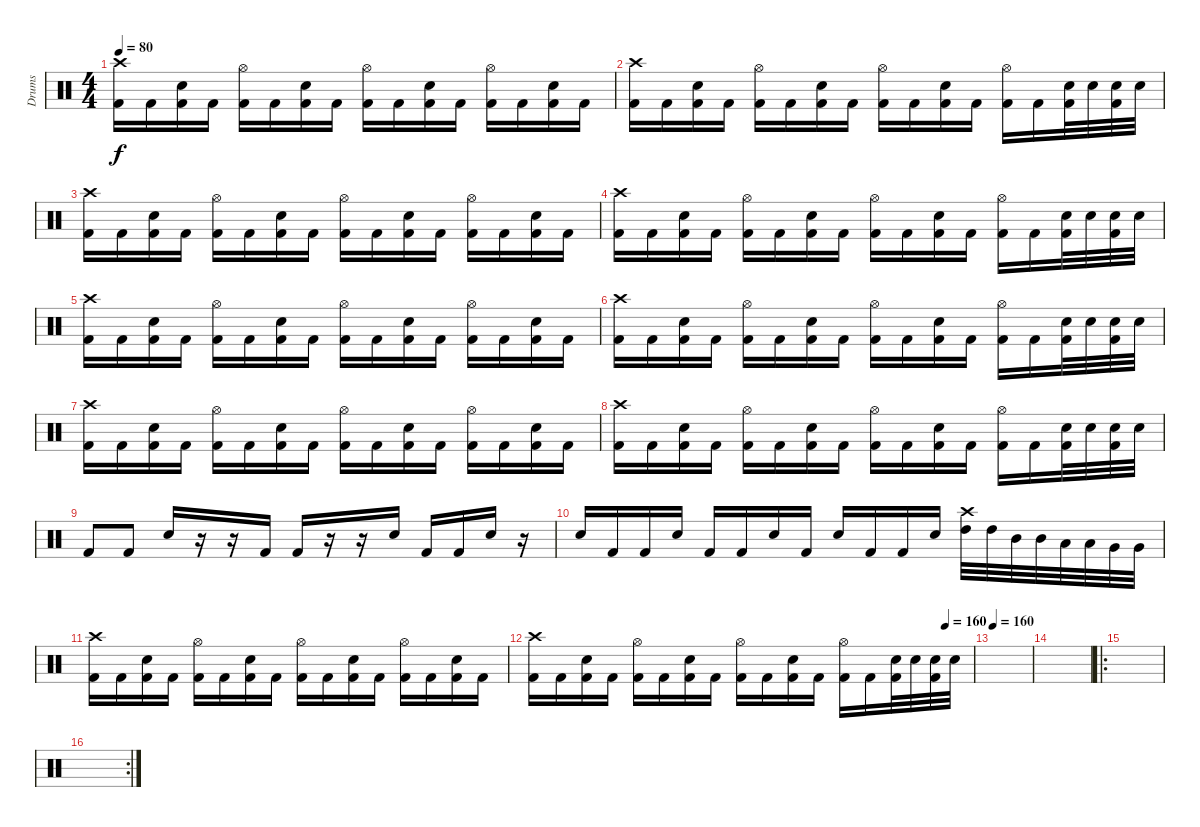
\track ("Drums" "Drums") {instrument percussion}
\staff {score}
\articulation defaults
\ts (4 4)
\tempo 80
\clef neutral
\ks c
("Crash high (hit)" "Kick (hit) 2").16{dy f} "Kick (hit) 2".16 ("Electric Snare (hit)" "Kick (hit) 2").16 "Kick (hit) 2".16 ("Hi-Hat (open)" "Kick (hit) 2").16 "Kick (hit) 2".16 ("Electric Snare (hit)" "Kick (hit) 2").16 "Kick (hit) 2".16 ("Hi-Hat (open)" "Kick (hit) 2").16 "Kick (hit) 2".16 ("Electric Snare (hit)" "Kick (hit) 2").16 "Kick (hit) 2".16 ("Hi-Hat (open)" "Kick (hit) 2").16 "Kick (hit) 2".16 ("Electric Snare (hit)" "Kick (hit) 2").16 "Kick (hit) 2".16 |
("Crash high (hit)" "Kick (hit) 2").16 "Kick (hit) 2".16 ("Electric Snare (hit)" "Kick (hit) 2").16 "Kick (hit) 2".16 ("Hi-Hat (open)" "Kick (hit) 2").16 "Kick (hit) 2".16 ("Electric Snare (hit)" "Kick (hit) 2").16 "Kick (hit) 2".16 ("Hi-Hat (open)" "Kick (hit) 2").16 "Kick (hit) 2".16 ("Electric Snare (hit)" "Kick (hit) 2").16 "Kick (hit) 2".16 ("Hi-Hat (open)" "Kick (hit) 2").16 "Kick (hit) 2".16 ("Electric Snare (hit)" "Kick (hit) 2").32 "Electric Snare (hit)".32 ("Electric Snare (hit)" "Kick (hit) 2").32 "Electric Snare (hit)".32 |
("Crash high (hit)" "Kick (hit) 2").16 "Kick (hit) 2".16 ("Electric Snare (hit)" "Kick (hit) 2").16 "Kick (hit) 2".16 ("Hi-Hat (open)" "Kick (hit) 2").16 "Kick (hit) 2".16 ("Electric Snare (hit)" "Kick (hit) 2").16 "Kick (hit) 2".16 ("Hi-Hat (open)" "Kick (hit) 2").16 "Kick (hit) 2".16 ("Electric Snare (hit)" "Kick (hit) 2").16 "Kick (hit) 2".16 ("Hi-Hat (open)" "Kick (hit) 2").16 "Kick (hit) 2".16 ("Electric Snare (hit)" "Kick (hit) 2").16 "Kick (hit) 2".16 |
("Crash high (hit)" "Kick (hit) 2").16 "Kick (hit) 2".16 ("Electric Snare (hit)" "Kick (hit) 2").16 "Kick (hit) 2".16 ("Hi-Hat (open)" "Kick (hit) 2").16 "Kick (hit) 2".16 ("Electric Snare (hit)" "Kick (hit) 2").16 "Kick (hit) 2".16 ("Hi-Hat (open)" "Kick (hit) 2").16 "Kick (hit) 2".16 ("Electric Snare (hit)" "Kick (hit) 2").16 "Kick (hit) 2".16 ("Hi-Hat (open)" "Kick (hit) 2").16 "Kick (hit) 2".16 ("Electric Snare (hit)" "Kick (hit) 2").32 "Electric Snare (hit)".32 ("Electric Snare (hit)" "Kick (hit) 2").32 "Electric Snare (hit)".32 |
("Crash high (hit)" "Kick (hit) 2").16 "Kick (hit) 2".16 ("Electric Snare (hit)" "Kick (hit) 2").16 "Kick (hit) 2".16 ("Hi-Hat (open)" "Kick (hit) 2").16 "Kick (hit) 2".16 ("Electric Snare (hit)" "Kick (hit) 2").16 "Kick (hit) 2".16 ("Hi-Hat (open)" "Kick (hit) 2").16 "Kick (hit) 2".16 ("Electric Snare (hit)" "Kick (hit) 2").16 "Kick (hit) 2".16 ("Hi-Hat (open)" "Kick (hit) 2").16 "Kick (hit) 2".16 ("Electric Snare (hit)" "Kick (hit) 2").16 "Kick (hit) 2".16 |
("Crash high (hit)" "Kick (hit) 2").16 "Kick (hit) 2".16 ("Electric Snare (hit)" "Kick (hit) 2").16 "Kick (hit) 2".16 ("Hi-Hat (open)" "Kick (hit) 2").16 "Kick (hit) 2".16 ("Electric Snare (hit)" "Kick (hit) 2").16 "Kick (hit) 2".16 ("Hi-Hat (open)" "Kick (hit) 2").16 "Kick (hit) 2".16 ("Electric Snare (hit)" "Kick (hit) 2").16 "Kick (hit) 2".16 ("Hi-Hat (open)" "Kick (hit) 2").16 "Kick (hit) 2".16 ("Electric Snare (hit)" "Kick (hit) 2").32 "Electric Snare (hit)".32 ("Electric Snare (hit)" "Kick (hit) 2").32 "Electric Snare (hit)".32 |
("Crash high (hit)" "Kick (hit) 2").16 "Kick (hit) 2".16 ("Electric Snare (hit)" "Kick (hit) 2").16 "Kick (hit) 2".16 ("Hi-Hat (open)" "Kick (hit) 2").16 "Kick (hit) 2".16 ("Electric Snare (hit)" "Kick (hit) 2").16 "Kick (hit) 2".16 ("Hi-Hat (open)" "Kick (hit) 2").16 "Kick (hit) 2".16 ("Electric Snare (hit)" "Kick (hit) 2").16 "Kick (hit) 2".16 ("Hi-Hat (open)" "Kick (hit) 2").16 "Kick (hit) 2".16 ("Electric Snare (hit)" "Kick (hit) 2").16 "Kick (hit) 2".16 |
("Crash high (hit)" "Kick (hit) 2").16 "Kick (hit) 2".16 ("Electric Snare (hit)" "Kick (hit) 2").16 "Kick (hit) 2".16 ("Hi-Hat (open)" "Kick (hit) 2").16 "Kick (hit) 2".16 ("Electric Snare (hit)" "Kick (hit) 2").16 "Kick (hit) 2".16 ("Hi-Hat (open)" "Kick (hit) 2").16 "Kick (hit) 2".16 ("Electric Snare (hit)" "Kick (hit) 2").16 "Kick (hit) 2".16 ("Hi-Hat (open)" "Kick (hit) 2").16 "Kick (hit) 2".16 ("Electric Snare (hit)" "Kick (hit) 2").32 "Electric Snare (hit)".32 ("Electric Snare (hit)" "Kick (hit) 2").32 "Electric Snare (hit)".32 |
"Kick (hit) 2".8 "Kick (hit) 2".8 "Electric Snare (hit)".16 r.16 r.16 "Kick (hit) 2".16 "Kick (hit) 2".16 r.16 r.16 "Electric Snare (hit)".16 "Kick (hit) 2".16 "Kick (hit) 2".16 "Electric Snare (hit)".16 r.16 |
"Electric Snare (hit)".16 "Kick (hit) 2".16 "Kick (hit) 2".16 "Electric Snare (hit)".16 "Kick (hit) 2".16 "Kick (hit) 2".16 "Electric Snare (hit)".16 "Kick (hit) 2".16 "Electric Snare (hit)".16 "Kick (hit) 2".16 "Kick (hit) 2".16 "Electric Snare (hit)".16 ("Crash high (hit)" "High Tom (hit)").32 "High Tom (hit)".32 "Mid Tom (hit)".32 "Mid Tom (hit)".32 "Low Tom (hit)".32 "Low Tom (hit)".32 "Very Low Tom (hit)".32 "Very Low Tom (hit)".32 |
("Crash high (hit)" "Kick (hit) 2").16 "Kick (hit) 2".16 ("Electric Snare (hit)" "Kick (hit) 2").16 "Kick (hit) 2".16 ("Hi-Hat (open)" "Kick (hit) 2").16 "Kick (hit) 2".16 ("Electric Snare (hit)" "Kick (hit) 2").16 "Kick (hit) 2".16 ("Hi-Hat (open)" "Kick (hit) 2").16 "Kick (hit) 2".16 ("Electric Snare (hit)" "Kick (hit) 2").16 "Kick (hit) 2".16 ("Hi-Hat (open)" "Kick (hit) 2").16 "Kick (hit) 2".16 ("Electric Snare (hit)" "Kick (hit) 2").16 "Kick (hit) 2".16 |
\tempo (160 0.9375)
("Crash high (hit)" "Kick (hit) 2").16 "Kick (hit) 2".16 ("Electric Snare (hit)" "Kick (hit) 2").16 "Kick (hit) 2".16 ("Hi-Hat (open)" "Kick (hit) 2").16 "Kick (hit) 2".16 ("Electric Snare (hit)" "Kick (hit) 2").16 "Kick (hit) 2".16 ("Hi-Hat (open)" "Kick (hit) 2").16 "Kick (hit) 2".16 ("Electric Snare (hit)" "Kick (hit) 2").16 "Kick (hit) 2".16 ("Hi-Hat (open)" "Kick (hit) 2").16 "Kick (hit) 2".16 ("Electric Snare (hit)" "Kick (hit) 2").32 "Electric Snare (hit)".32 ("Electric Snare (hit)" "Kick (hit) 2").32 "Electric Snare (hit)".32 |
\tempo 160
|
|
\ro
|
\rc 2
